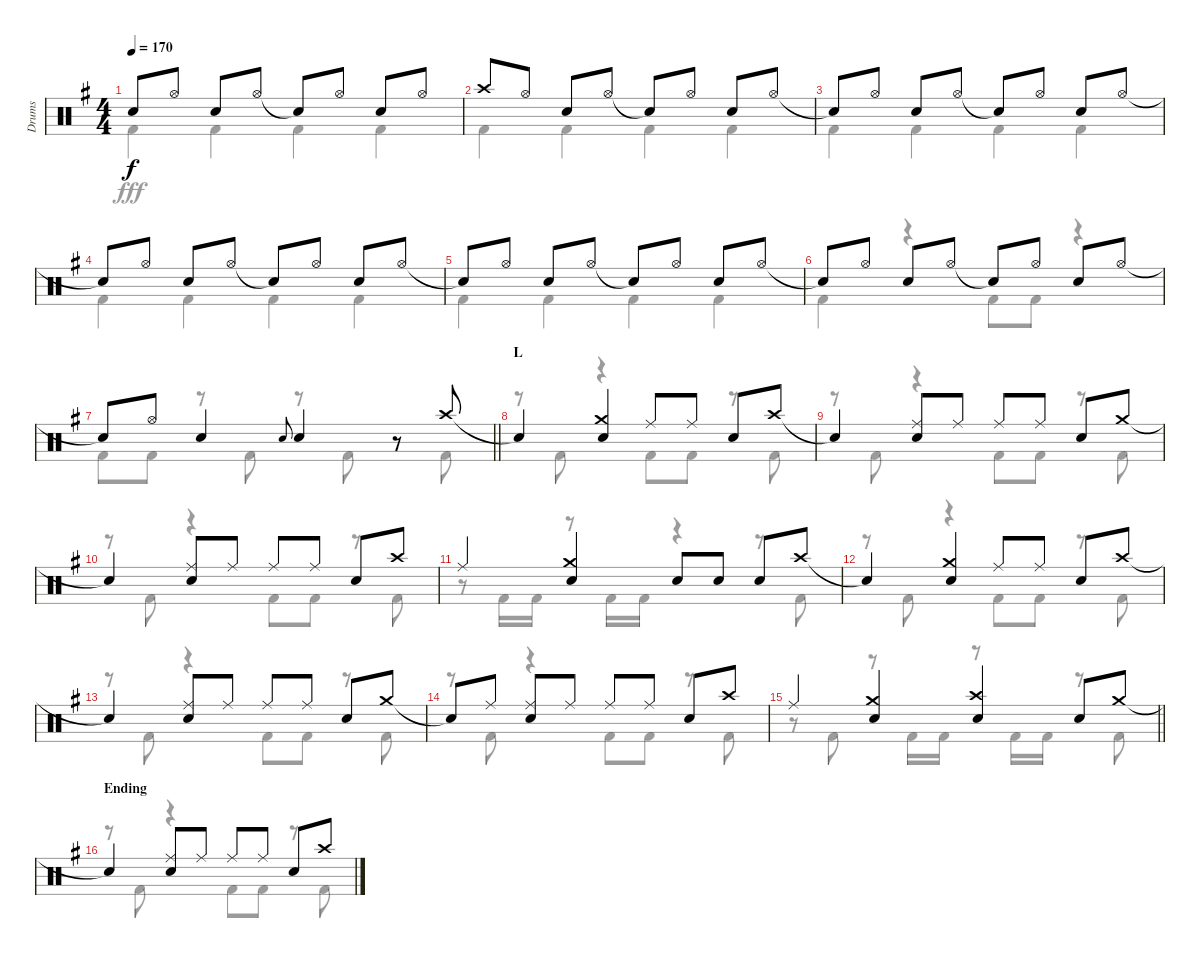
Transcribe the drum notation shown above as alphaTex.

\track ("Drums" "Drums") {instrument percussion}
\staff {score}
\articulation defaults
\voice
\ts (4 4)
\tempo 170
\clef neutral
\ks g "Snare (hit)"{t}.8{dy f} "Hi-Hat (open)".8 "Snare (hit) 2".8 "Hi-Hat (open)".8 "Snare (hit)"{t}.8 "Hi-Hat (open)".8 "Snare (hit) 2".8 "Hi-Hat (open)".8
|
"Crash high (hit)".8 "Hi-Hat (open)".8 "Snare (hit) 2".8 "Hi-Hat (open)".8 "Snare (hit)"{t}.8 "Hi-Hat (open)".8 "Snare (hit) 2".8 "Hi-Hat (open)".8 |
"Snare (hit)"{t}.8 "Hi-Hat (open)".8 "Snare (hit) 2".8 "Hi-Hat (open)".8 "Snare (hit)"{t}.8 "Hi-Hat (open)".8 "Snare (hit) 2".8 "Hi-Hat (open)".8 |
"Snare (hit)"{t}.8 "Hi-Hat (open)".8 "Snare (hit) 2".8 "Hi-Hat (open)".8 "Snare (hit)"{t}.8 "Hi-Hat (open)".8 "Snare (hit) 2".8 "Hi-Hat (open)".8 |
"Snare (hit)"{t}.8 "Hi-Hat (open)".8 "Snare (hit) 2".8 "Hi-Hat (open)".8 "Snare (hit)"{t}.8 "Hi-Hat (open)".8 "Snare (hit) 2".8 "Hi-Hat (open)".8 |
"Snare (hit)"{t}.8 "Hi-Hat (open)".8 "Snare (hit) 2".8 "Hi-Hat (open)".8 "Snare (hit)"{t}.8 "Hi-Hat (open)".8 "Snare (hit) 2".8 "Hi-Hat (open)".8 |
\barLineRight lightlight "Snare (hit)"{t}.8 "Hi-Hat (open)".8 "Snare (hit) 2".4 "Snare (hit) 2".8{gr onbeat} "Snare (hit) 2".4
r.8 "Crash high (hit)".8 |
\section ("" "L")
"Snare (hit)"{t}.4 ("Crash medium (hit)" "Snare (hit) 2").4 "Ride (middle)".8 "Ride (middle)".8 "Snare (hit) 2".8 "Crash high (hit)".8 |
"Snare (hit)"{t}.4 ("Ride (middle)" "Snare (hit) 2").8 "Ride (middle)".8 "Ride (middle)".8 "Ride (middle)".8 "Snare (hit) 2".8 "Crash medium (hit)".8 |
"Snare (hit)"{t}.4 ("Ride (middle)" "Snare (hit) 2").8 "Ride (middle)".8 "Ride (middle)".8 "Ride (middle)".8 "Snare (hit) 2".8 "Crash high (hit)".8 |
"Ride (middle)".4 ("Crash medium (hit)" "Snare (hit) 2").4 "Snare (hit) 2".8 "Snare (hit) 2".8 "Snare (hit) 2".8 "Crash high (hit)".8 |
"Snare (hit)"{t}.4 ("Crash medium (hit)" "Snare (hit) 2").4 "Ride (middle)".8 "Ride (middle)".8 "Snare (hit) 2".8 "Crash high (hit)".8 |
"Snare (hit)"{t}.4 ("Ride (middle)" "Snare (hit) 2").8 "Ride (middle)".8 "Ride (middle)".8 "Ride (middle)".8 "Snare (hit) 2".8 "Crash medium (hit)".8 |
"Snare (hit)"{t}.8 "Ride (middle)".8 ("Ride (middle)" "Snare (hit) 2").8 "Ride (middle)".8 "Ride (middle)".8 "Ride (middle)".8 "Snare (hit) 2".8 "Crash high (hit)".8 |
\barLineRight lightlight "Ride (middle)".4
("Crash medium (hit)" "Snare (hit) 2").4 ("Crash high (hit)" "Snare (hit) 2").4 "Snare (hit) 2".8 "Crash medium (hit)".8 |
\section ("" "Ending")
"Snare (hit)"{t}.4 ("Ride (middle)" "Snare (hit) 2").8 "Ride (middle)".8 "Ride (middle)".8 "Ride (middle)".8 "Snare (hit) 2".8 "Crash high (hit)".8
\voice
\clef neutral
\ottava regular
\simile none
\ks g "Kick (hit) 2".4{dy fff} "Kick (hit) 2".4 "Kick (hit) 2".4 "Kick (hit) 2".4
|
"Kick (hit) 2".4 "Kick (hit) 2".4 "Kick (hit) 2".4 "Kick (hit) 2".4 |
"Kick (hit) 2".4 "Kick (hit) 2".4 "Kick (hit) 2".4 "Kick (hit) 2".4 |
"Kick (hit) 2".4 "Kick (hit) 2".4 "Kick (hit) 2".4 "Kick (hit) 2".4 |
"Kick (hit) 2".4 "Kick (hit) 2".4 "Kick (hit) 2".4 "Kick (hit) 2".4 |
"Kick (hit) 2".4 r.4 "Kick (hit) 2".8 "Kick (hit) 2".8 r.4 |
\barLineRight lightlight "Kick (hit) 2".8 "Kick (hit) 2".8
r.8 "Kick (hit) 2".8 r.8 "Kick (hit) 2".8 r.8 "Kick (hit) 2".8 |
r.8 "Kick (hit) 2".8 r.4 "Kick (hit) 2".8 "Kick (hit) 2".8 r.8 "Kick (hit) 2".8 |
r.8 "Kick (hit) 2".8 r.4 "Kick (hit) 2".8 "Kick (hit) 2".8 r.8 "Kick (hit) 2".8 |
r.8 "Kick (hit) 2".8 r.4 "Kick (hit) 2".8 "Kick (hit) 2".8 r.8 "Kick (hit) 2".8 |
r.8 "Kick (hit) 2".16 "Kick (hit) 2".16 r.8 "Kick (hit) 2".16 "Kick (hit) 2".16 r.4 r.8 "Kick (hit) 2".8 |
r.8 "Kick (hit) 2".8 r.4 "Kick (hit) 2".8 "Kick (hit) 2".8 r.8 "Kick (hit) 2".8 |
r.8 "Kick (hit) 2".8 r.4 "Kick (hit) 2".8 "Kick (hit) 2".8 r.8 "Kick (hit) 2".8 |
r.8 "Kick (hit) 2".8 r.4 "Kick (hit) 2".8 "Kick (hit) 2".8 r.8 "Kick (hit) 2".8 |
\barLineRight lightlight
r.8 "Kick (hit) 2".8 r.8 "Kick (hit) 2".16 "Kick (hit) 2".16 r.8 "Kick (hit) 2".16 "Kick (hit) 2".16 r.8 "Kick (hit) 2".8 |
r.8 "Kick (hit) 2".8 r.4 "Kick (hit) 2".8 "Kick (hit) 2".8 r.8 "Kick (hit) 2".8
